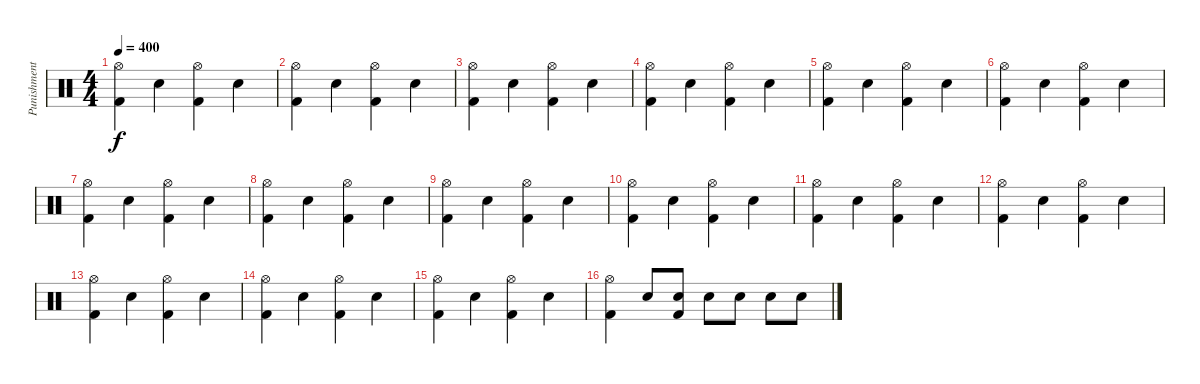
\track ("Punishment" "Punishment") {instrument percussion}
\staff {score}
\articulation defaults
\ts (4 4)
\tempo 400
\clef neutral
\ks c
("Hi-Hat (open)" "Kick (hit) 2").4{dy f} "Electric Snare (hit)".4 ("Hi-Hat (open)" "Kick (hit) 2").4 "Electric Snare (hit)".4 |
("Hi-Hat (open)" "Kick (hit) 2").4 "Electric Snare (hit)".4 ("Hi-Hat (open)" "Kick (hit) 2").4 "Electric Snare (hit)".4 |
("Hi-Hat (open)" "Kick (hit) 2").4 "Electric Snare (hit)".4 ("Hi-Hat (open)" "Kick (hit) 2").4 "Electric Snare (hit)".4 |
("Hi-Hat (open)" "Kick (hit) 2").4 "Electric Snare (hit)".4 ("Hi-Hat (open)" "Kick (hit) 2").4 "Electric Snare (hit)".4 |
("Hi-Hat (open)" "Kick (hit) 2").4 "Electric Snare (hit)".4 ("Hi-Hat (open)" "Kick (hit) 2").4 "Electric Snare (hit)".4 |
("Hi-Hat (open)" "Kick (hit) 2").4 "Electric Snare (hit)".4 ("Hi-Hat (open)" "Kick (hit) 2").4 "Electric Snare (hit)".4 |
("Hi-Hat (open)" "Kick (hit) 2").4 "Electric Snare (hit)".4 ("Hi-Hat (open)" "Kick (hit) 2").4 "Electric Snare (hit)".4 |
("Hi-Hat (open)" "Kick (hit) 2").4 "Electric Snare (hit)".4 ("Hi-Hat (open)" "Kick (hit) 2").4 "Electric Snare (hit)".4 |
("Hi-Hat (open)" "Kick (hit) 2").4 "Electric Snare (hit)".4 ("Hi-Hat (open)" "Kick (hit) 2").4 "Electric Snare (hit)".4 |
("Hi-Hat (open)" "Kick (hit) 2").4 "Electric Snare (hit)".4 ("Hi-Hat (open)" "Kick (hit) 2").4 "Electric Snare (hit)".4 |
("Hi-Hat (open)" "Kick (hit) 2").4 "Electric Snare (hit)".4 ("Hi-Hat (open)" "Kick (hit) 2").4 "Electric Snare (hit)".4 |
("Hi-Hat (open)" "Kick (hit) 2").4 "Electric Snare (hit)".4 ("Hi-Hat (open)" "Kick (hit) 2").4 "Electric Snare (hit)".4 |
("Hi-Hat (open)" "Kick (hit) 2").4 "Electric Snare (hit)".4 ("Hi-Hat (open)" "Kick (hit) 2").4 "Electric Snare (hit)".4 |
("Hi-Hat (open)" "Kick (hit) 2").4 "Electric Snare (hit)".4 ("Hi-Hat (open)" "Kick (hit) 2").4 "Electric Snare (hit)".4 |
("Hi-Hat (open)" "Kick (hit) 2").4 "Electric Snare (hit)".4 ("Hi-Hat (open)" "Kick (hit) 2").4 "Electric Snare (hit)".4 |
("Hi-Hat (open)" "Kick (hit) 2").4 "Electric Snare (hit)".8 ("Electric Snare (hit)" "Kick (hit) 2").8 "Electric Snare (hit)".8 "Electric Snare (hit)".8 "Electric Snare (hit)".8 "Electric Snare (hit)".8
